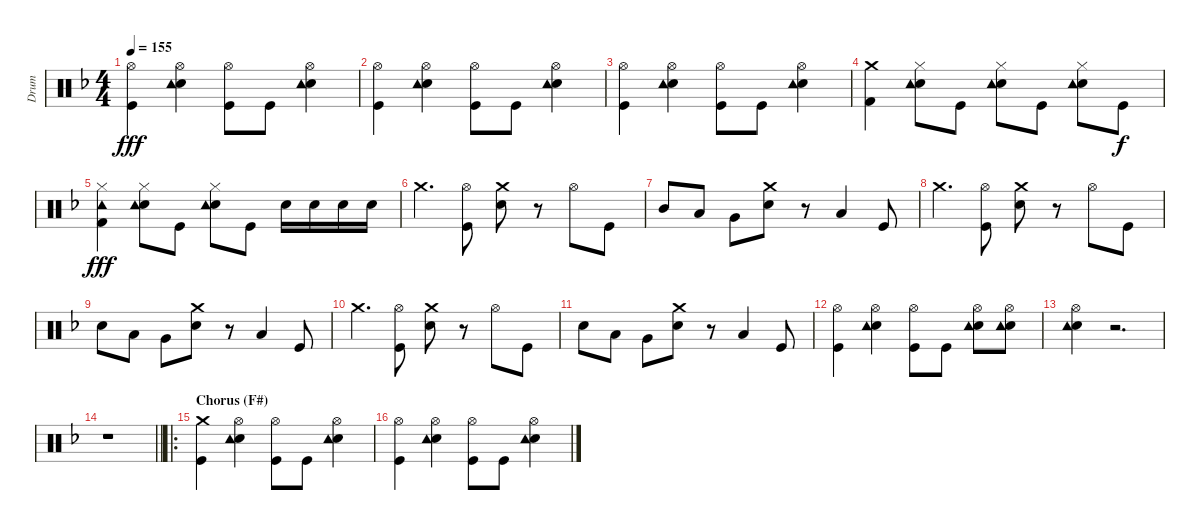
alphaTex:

\track ("Drum" "Drum") {instrument percussion}
\staff {score}
\articulation defaults
\ts (4 4)
\tempo 155
\clef neutral
\ks f
("Hi-Hat (open)" "Kick (hit)").4{dy fff} ("Hi-Hat (open)" "Electric Snare (hit)" "Tambourine (hit)").4 ("Hi-Hat (open)" "Kick (hit)").8 "Kick (hit)".8 ("Hi-Hat (open)" "Electric Snare (hit)" "Tambourine (hit)").4 |
("Hi-Hat (open)" "Kick (hit)").4 ("Hi-Hat (open)" "Electric Snare (hit)" "Tambourine (hit)").4 ("Hi-Hat (open)" "Kick (hit)").8 "Kick (hit)".8 ("Hi-Hat (open)" "Electric Snare (hit)" "Tambourine (hit)").4 |
("Hi-Hat (open)" "Kick (hit)").4 ("Hi-Hat (open)" "Electric Snare (hit)" "Tambourine (hit)").4 ("Hi-Hat (open)" "Kick (hit)").8 "Kick (hit)".8 ("Hi-Hat (open)" "Electric Snare (hit)" "Tambourine (hit)").4 |
("Crash medium (hit)" "Kick (hit) 2").4 ("Hi-Hat (closed)" "Electric Snare (hit)" "Tambourine (hit)").8 "Kick (hit)".8 ("Hi-Hat (closed)" "Electric Snare (hit)" "Tambourine (hit)").8 "Kick (hit)".8 ("Hi-Hat (closed)" "Electric Snare (hit)" "Tambourine (hit)").8 "Kick (hit)".8{dy f} |
("Hi-Hat (closed)" "Kick (hit) 2" "Tambourine (hit)").4{dy fff} ("Hi-Hat (closed)" "Electric Snare (hit)" "Tambourine (hit)").8 "Kick (hit)".8 ("Hi-Hat (closed)" "Electric Snare (hit)" "Tambourine (hit)").8 "Kick (hit)".8 "Electric Snare (hit)".16 "Electric Snare (hit)".16 "Electric Snare (hit)".16 "Electric Snare (hit)".16 |
"Crash medium (hit)".4{d} ("Hi-Hat (open)" "Kick (hit)").8 ("Crash medium (hit)" "Electric Snare (hit)").8 r.8 "Hi-Hat (open)".8 "Kick (hit)".8 |
"Mid Tom (hit)".8 "Low Tom (hit)".8 "Very Low Tom (hit)".8 ("Crash medium (hit)" "Electric Snare (hit)").8 r.8 "Low Tom (hit)".4 "Kick (hit)".8 |
"Crash medium (hit)".4{d} ("Hi-Hat (open)" "Kick (hit)").8 ("Crash medium (hit)" "Electric Snare (hit)").8 r.8 "Hi-Hat (open)".8 "Kick (hit)".8 |
"Electric Snare (hit)".8 "Low Tom (hit)".8 "Very Low Tom (hit)".8 ("Crash medium (hit)" "Electric Snare (hit)").8 r.8 "Low Tom (hit)".4 "Kick (hit)".8 |
"Crash medium (hit)".4{d} ("Hi-Hat (open)" "Kick (hit)").8 ("Crash medium (hit)" "Electric Snare (hit)").8 r.8 "Hi-Hat (open)".8 "Kick (hit)".8 |
"Electric Snare (hit)".8 "Low Tom (hit)".8 "Very Low Tom (hit)".8 ("Crash medium (hit)" "Electric Snare (hit)").8 r.8 "Low Tom (hit)".4 "Kick (hit)".8 |
("Hi-Hat (open)" "Kick (hit)").4 ("Hi-Hat (open)" "Electric Snare (hit)" "Tambourine (hit)").4 ("Hi-Hat (open)" "Kick (hit)").8 "Kick (hit)".8 ("Hi-Hat (open)" "Electric Snare (hit)" "Tambourine (hit)").8 ("Hi-Hat (open)" "Electric Snare (hit)" "Tambourine (hit)").8 |
("Hi-Hat (open)" "Electric Snare (hit)" "Tambourine (hit)").4 r.2{d} |
\barLineRight lightlight
r.1 |
\ro
\section ("" "Chorus (F#)")
("Crash medium (hit)" "Kick (hit)").4 ("Hi-Hat (open)" "Electric Snare (hit)" "Tambourine (hit)").4 ("Hi-Hat (open)" "Kick (hit)").8 "Kick (hit)".8 ("Hi-Hat (open)" "Electric Snare (hit)" "Tambourine (hit)").4 |
("Hi-Hat (open)" "Kick (hit)").4 ("Hi-Hat (open)" "Electric Snare (hit)" "Tambourine (hit)").4 ("Hi-Hat (open)" "Kick (hit)").8 "Kick (hit)".8 ("Hi-Hat (open)" "Electric Snare (hit)" "Tambourine (hit)").4
